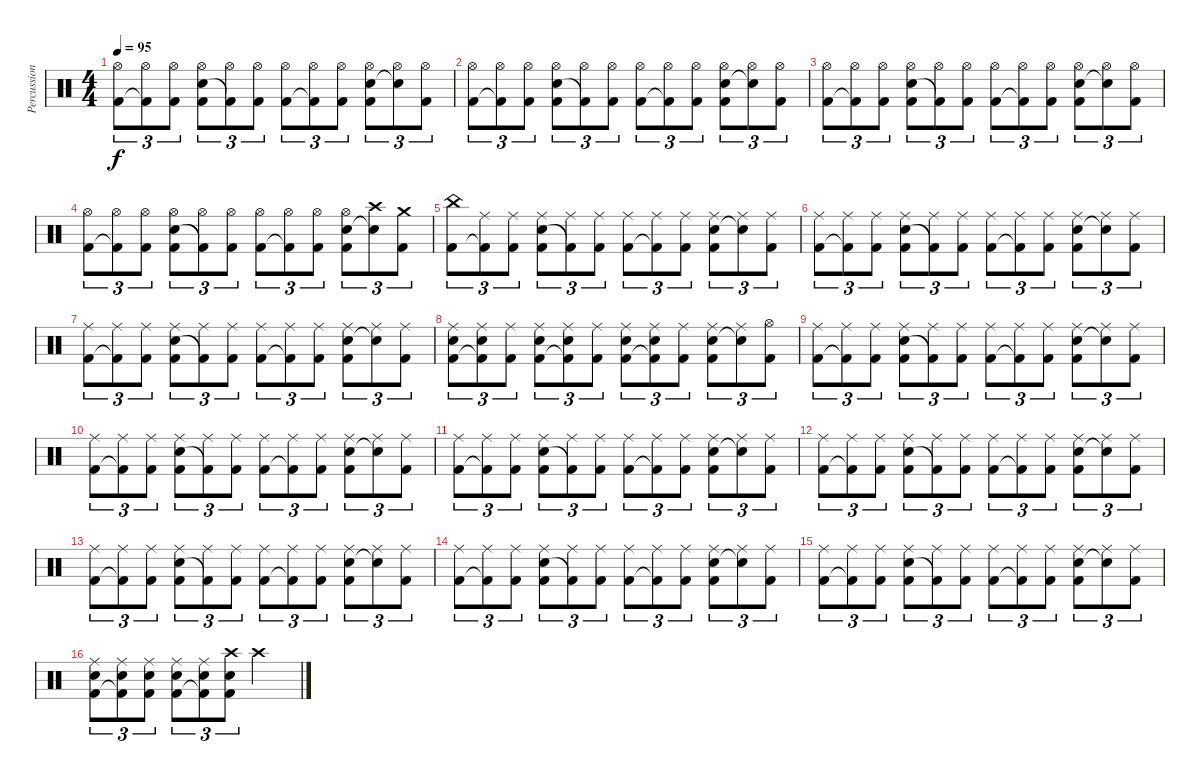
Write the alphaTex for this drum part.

\track ("Percussion" "Percussion") {instrument percussion}
\staff {score}
\articulation defaults
\ts (4 4)
\tempo 95
\clef neutral
\ks c
("Hi-Hat (open)" "Kick (hit) 2").8{tu (3 2) dy f} ("Hi-Hat (open)" "Kick (hit) 2"{t}).8{tu (3 2)} ("Hi-Hat (open)" "Kick (hit) 2").8{tu (3 2)} ("Hi-Hat (open)" "Snare (hit) 2" "Kick (hit) 2").8{tu (3 2)} ("Hi-Hat (open)" "Kick (hit) 2"{t}).8{tu (3 2)} ("Hi-Hat (open)" "Kick (hit) 2").8{tu (3 2)} ("Hi-Hat (open)" "Kick (hit) 2").8{tu (3 2)} ("Hi-Hat (open)" "Kick (hit) 2"{t}).8{tu (3 2)} ("Hi-Hat (open)" "Kick (hit) 2").8{tu (3 2)} ("Hi-Hat (open)" "Snare (hit) 2" "Kick (hit) 2").8{tu (3 2)} ("Hi-Hat (open)" "Snare (hit)"{t}).8{tu (3 2)} ("Hi-Hat (open)" "Kick (hit) 2").8{tu (3 2)} |
("Hi-Hat (open)" "Kick (hit) 2").8{tu (3 2)} ("Hi-Hat (open)" "Kick (hit) 2"{t}).8{tu (3 2)} ("Hi-Hat (open)" "Kick (hit) 2").8{tu (3 2)} ("Hi-Hat (open)" "Snare (hit) 2" "Kick (hit) 2").8{tu (3 2)} ("Hi-Hat (open)" "Kick (hit) 2"{t}).8{tu (3 2)} ("Hi-Hat (open)" "Kick (hit) 2").8{tu (3 2)} ("Hi-Hat (open)" "Kick (hit) 2").8{tu (3 2)} ("Hi-Hat (open)" "Kick (hit) 2"{t}).8{tu (3 2)} ("Hi-Hat (open)" "Kick (hit) 2").8{tu (3 2)} ("Hi-Hat (open)" "Snare (hit) 2" "Kick (hit) 2").8{tu (3 2)} ("Hi-Hat (open)" "Snare (hit)"{t}).8{tu (3 2)} ("Hi-Hat (open)" "Kick (hit) 2").8{tu (3 2)} |
("Hi-Hat (open)" "Kick (hit) 2").8{tu (3 2)} ("Hi-Hat (open)" "Kick (hit) 2"{t}).8{tu (3 2)} ("Hi-Hat (open)" "Kick (hit) 2").8{tu (3 2)} ("Hi-Hat (open)" "Snare (hit) 2" "Kick (hit) 2").8{tu (3 2)} ("Hi-Hat (open)" "Kick (hit) 2"{t}).8{tu (3 2)} ("Hi-Hat (open)" "Kick (hit) 2").8{tu (3 2)} ("Hi-Hat (open)" "Kick (hit) 2").8{tu (3 2)} ("Hi-Hat (open)" "Kick (hit) 2"{t}).8{tu (3 2)} ("Hi-Hat (open)" "Kick (hit) 2").8{tu (3 2)} ("Hi-Hat (open)" "Snare (hit) 2" "Kick (hit) 2").8{tu (3 2)} ("Hi-Hat (open)" "Snare (hit)"{t}).8{tu (3 2)} ("Hi-Hat (open)" "Kick (hit) 2").8{tu (3 2)} |
("Hi-Hat (open)" "Kick (hit) 2").8{tu (3 2)} ("Hi-Hat (open)" "Kick (hit) 2"{t}).8{tu (3 2)} ("Hi-Hat (open)" "Kick (hit) 2").8{tu (3 2)} ("Hi-Hat (open)" "Snare (hit) 2" "Kick (hit) 2").8{tu (3 2)} ("Hi-Hat (open)" "Kick (hit) 2"{t}).8{tu (3 2)} ("Hi-Hat (open)" "Kick (hit) 2").8{tu (3 2)} ("Hi-Hat (open)" "Kick (hit) 2").8{tu (3 2)} ("Hi-Hat (open)" "Kick (hit) 2"{t}).8{tu (3 2)} ("Hi-Hat (open)" "Kick (hit) 2").8{tu (3 2)} ("Hi-Hat (open)" "Snare (hit) 2" "Kick (hit) 2").8{tu (3 2)} ("Crash high (hit)" "Snare (hit)"{t}).8{tu (3 2)} ("Crash medium (hit)" "Kick (hit) 2").8{tu (3 2)} |
("China (hit)" "Kick (hit) 2").8{tu (3 2)} ("Ride (middle)" "Kick (hit) 2"{t}).8{tu (3 2)} ("Ride (middle)" "Kick (hit) 2").8{tu (3 2)} ("Ride (middle)" "Snare (hit) 2" "Kick (hit) 2").8{tu (3 2)} ("Ride (middle)" "Kick (hit) 2"{t}).8{tu (3 2)} ("Ride (middle)" "Kick (hit) 2").8{tu (3 2)} ("Ride (middle)" "Kick (hit) 2").8{tu (3 2)} ("Ride (middle)" "Kick (hit) 2"{t}).8{tu (3 2)} ("Ride (middle)" "Kick (hit) 2").8{tu (3 2)} ("Ride (middle)" "Snare (hit) 2" "Kick (hit) 2").8{tu (3 2)} ("Ride (middle)" "Snare (hit)"{t}).8{tu (3 2)} ("Ride (middle)" "Kick (hit) 2").8{tu (3 2)} |
("Ride (middle)" "Kick (hit) 2").8{tu (3 2)} ("Ride (middle)" "Kick (hit) 2"{t}).8{tu (3 2)} ("Ride (middle)" "Kick (hit) 2").8{tu (3 2)} ("Ride (middle)" "Snare (hit) 2" "Kick (hit) 2").8{tu (3 2)} ("Ride (middle)" "Kick (hit) 2"{t}).8{tu (3 2)} ("Ride (middle)" "Kick (hit) 2").8{tu (3 2)} ("Ride (middle)" "Kick (hit) 2").8{tu (3 2)} ("Ride (middle)" "Kick (hit) 2"{t}).8{tu (3 2)} ("Ride (middle)" "Kick (hit) 2").8{tu (3 2)} ("Ride (middle)" "Snare (hit) 2" "Kick (hit) 2").8{tu (3 2)} ("Ride (middle)" "Snare (hit)"{t}).8{tu (3 2)} ("Ride (middle)" "Kick (hit) 2").8{tu (3 2)} |
("Ride (middle)" "Kick (hit) 2").8{tu (3 2)} ("Ride (middle)" "Kick (hit) 2"{t}).8{tu (3 2)} ("Ride (middle)" "Kick (hit) 2").8{tu (3 2)} ("Ride (middle)" "Snare (hit) 2" "Kick (hit) 2").8{tu (3 2)} ("Ride (middle)" "Kick (hit) 2"{t}).8{tu (3 2)} ("Ride (middle)" "Kick (hit) 2").8{tu (3 2)} ("Ride (middle)" "Kick (hit) 2").8{tu (3 2)} ("Ride (middle)" "Kick (hit) 2"{t}).8{tu (3 2)} ("Ride (middle)" "Kick (hit) 2").8{tu (3 2)} ("Ride (middle)" "Snare (hit) 2" "Kick (hit) 2").8{tu (3 2)} ("Ride (middle)" "Snare (hit)"{t}).8{tu (3 2)} ("Ride (middle)" "Kick (hit) 2").8{tu (3 2)} |
("Ride (middle)" "Snare (hit) 2" "Kick (hit) 2").8{tu (3 2)} ("Ride (middle)" "Snare (hit) 2" "Kick (hit) 2"{t}).8{tu (3 2)} ("Ride (middle)" "Kick (hit) 2").8{tu (3 2)} ("Ride (middle)" "Snare (hit) 2" "Kick (hit) 2").8{tu (3 2)} ("Ride (middle)" "Snare (hit) 2" "Kick (hit) 2"{t}).8{tu (3 2)} ("Ride (middle)" "Kick (hit) 2").8{tu (3 2)} ("Ride (middle)" "Snare (hit) 2" "Kick (hit) 2").8{tu (3 2)} ("Ride (middle)" "Snare (hit) 2" "Kick (hit) 2"{t}).8{tu (3 2)} ("Ride (middle)" "Kick (hit) 2").8{tu (3 2)} ("Ride (middle)" "Snare (hit) 2" "Kick (hit) 2").8{tu (3 2)} ("Ride (middle)" "Snare (hit)"{t}).8{tu (3 2)} ("Hi-Hat (open)" "Kick (hit) 2").8{tu (3 2)} |
("Ride (middle)" "Kick (hit) 2").8{tu (3 2)} ("Ride (middle)" "Kick (hit) 2"{t}).8{tu (3 2)} ("Ride (middle)" "Kick (hit) 2").8{tu (3 2)} ("Ride (middle)" "Snare (hit) 2" "Kick (hit) 2").8{tu (3 2)} ("Ride (middle)" "Kick (hit) 2"{t}).8{tu (3 2)} ("Ride (middle)" "Kick (hit) 2").8{tu (3 2)} ("Ride (middle)" "Kick (hit) 2").8{tu (3 2)} ("Ride (middle)" "Kick (hit) 2"{t}).8{tu (3 2)} ("Ride (middle)" "Kick (hit) 2").8{tu (3 2)} ("Ride (middle)" "Snare (hit) 2" "Kick (hit) 2").8{tu (3 2)} ("Ride (middle)" "Snare (hit)"{t}).8{tu (3 2)} ("Ride (middle)" "Kick (hit) 2").8{tu (3 2)} |
("Ride (middle)" "Kick (hit) 2").8{tu (3 2)} ("Ride (middle)" "Kick (hit) 2"{t}).8{tu (3 2)} ("Ride (middle)" "Kick (hit) 2").8{tu (3 2)} ("Ride (middle)" "Snare (hit) 2" "Kick (hit) 2").8{tu (3 2)} ("Ride (middle)" "Kick (hit) 2"{t}).8{tu (3 2)} ("Ride (middle)" "Kick (hit) 2").8{tu (3 2)} ("Ride (middle)" "Kick (hit) 2").8{tu (3 2)} ("Ride (middle)" "Kick (hit) 2"{t}).8{tu (3 2)} ("Ride (middle)" "Kick (hit) 2").8{tu (3 2)} ("Ride (middle)" "Snare (hit) 2" "Kick (hit) 2").8{tu (3 2)} ("Ride (middle)" "Snare (hit)"{t}).8{tu (3 2)} ("Ride (middle)" "Kick (hit) 2").8{tu (3 2)} |
("Ride (middle)" "Kick (hit) 2").8{tu (3 2)} ("Ride (middle)" "Kick (hit) 2"{t}).8{tu (3 2)} ("Ride (middle)" "Kick (hit) 2").8{tu (3 2)} ("Ride (middle)" "Snare (hit) 2" "Kick (hit) 2").8{tu (3 2)} ("Ride (middle)" "Kick (hit) 2"{t}).8{tu (3 2)} ("Ride (middle)" "Kick (hit) 2").8{tu (3 2)} ("Ride (middle)" "Kick (hit) 2").8{tu (3 2)} ("Ride (middle)" "Kick (hit) 2"{t}).8{tu (3 2)} ("Ride (middle)" "Kick (hit) 2").8{tu (3 2)} ("Ride (middle)" "Snare (hit) 2" "Kick (hit) 2").8{tu (3 2)} ("Ride (middle)" "Snare (hit)"{t}).8{tu (3 2)} ("Ride (middle)" "Kick (hit) 2").8{tu (3 2)} |
("Ride (middle)" "Kick (hit) 2").8{tu (3 2)} ("Ride (middle)" "Kick (hit) 2"{t}).8{tu (3 2)} ("Ride (middle)" "Kick (hit) 2").8{tu (3 2)} ("Ride (middle)" "Snare (hit) 2" "Kick (hit) 2").8{tu (3 2)} ("Ride (middle)" "Kick (hit) 2"{t}).8{tu (3 2)} ("Ride (middle)" "Kick (hit) 2").8{tu (3 2)} ("Ride (middle)" "Kick (hit) 2").8{tu (3 2)} ("Ride (middle)" "Kick (hit) 2"{t}).8{tu (3 2)} ("Ride (middle)" "Kick (hit) 2").8{tu (3 2)} ("Ride (middle)" "Snare (hit) 2" "Kick (hit) 2").8{tu (3 2)} ("Ride (middle)" "Snare (hit)"{t}).8{tu (3 2)} ("Ride (middle)" "Kick (hit) 2").8{tu (3 2)} |
("Ride (middle)" "Kick (hit) 2").8{tu (3 2)} ("Ride (middle)" "Kick (hit) 2"{t}).8{tu (3 2)} ("Ride (middle)" "Kick (hit) 2").8{tu (3 2)} ("Ride (middle)" "Snare (hit) 2" "Kick (hit) 2").8{tu (3 2)} ("Ride (middle)" "Kick (hit) 2"{t}).8{tu (3 2)} ("Ride (middle)" "Kick (hit) 2").8{tu (3 2)} ("Ride (middle)" "Kick (hit) 2").8{tu (3 2)} ("Ride (middle)" "Kick (hit) 2"{t}).8{tu (3 2)} ("Ride (middle)" "Kick (hit) 2").8{tu (3 2)} ("Ride (middle)" "Snare (hit) 2" "Kick (hit) 2").8{tu (3 2)} ("Ride (middle)" "Snare (hit)"{t}).8{tu (3 2)} ("Ride (middle)" "Kick (hit) 2").8{tu (3 2)} |
("Ride (middle)" "Kick (hit) 2").8{tu (3 2)} ("Ride (middle)" "Kick (hit) 2"{t}).8{tu (3 2)} ("Ride (middle)" "Kick (hit) 2").8{tu (3 2)} ("Ride (middle)" "Snare (hit) 2" "Kick (hit) 2").8{tu (3 2)} ("Ride (middle)" "Kick (hit) 2"{t}).8{tu (3 2)} ("Ride (middle)" "Kick (hit) 2").8{tu (3 2)} ("Ride (middle)" "Kick (hit) 2").8{tu (3 2)} ("Ride (middle)" "Kick (hit) 2"{t}).8{tu (3 2)} ("Ride (middle)" "Kick (hit) 2").8{tu (3 2)} ("Ride (middle)" "Snare (hit) 2" "Kick (hit) 2").8{tu (3 2)} ("Ride (middle)" "Snare (hit)"{t}).8{tu (3 2)} ("Ride (middle)" "Kick (hit) 2").8{tu (3 2)} |
("Ride (middle)" "Kick (hit) 2").8{tu (3 2)} ("Ride (middle)" "Kick (hit) 2"{t}).8{tu (3 2)} ("Ride (middle)" "Kick (hit) 2").8{tu (3 2)} ("Ride (middle)" "Snare (hit) 2" "Kick (hit) 2").8{tu (3 2)} ("Ride (middle)" "Kick (hit) 2"{t}).8{tu (3 2)} ("Ride (middle)" "Kick (hit) 2").8{tu (3 2)} ("Ride (middle)" "Kick (hit) 2").8{tu (3 2)} ("Ride (middle)" "Kick (hit) 2"{t}).8{tu (3 2)} ("Ride (middle)" "Kick (hit) 2").8{tu (3 2)} ("Ride (middle)" "Snare (hit) 2" "Kick (hit) 2").8{tu (3 2)} ("Ride (middle)" "Snare (hit)"{t}).8{tu (3 2)} ("Ride (middle)" "Kick (hit) 2").8{tu (3 2)} |
("Ride (middle)" "Snare (hit) 2" "Kick (hit) 2").8{tu (3 2)} ("Ride (middle)" "Snare (hit) 2" "Kick (hit) 2"{t}).8{tu (3 2)} ("Ride (middle)" "Snare (hit) 2" "Kick (hit) 2").8{tu (3 2)} ("Ride (middle)" "Snare (hit) 2" "Kick (hit) 2").8{tu (3 2)} ("Ride (middle)" "Snare (hit) 2" "Kick (hit) 2"{t}).8{tu (3 2)} ("Crash high (hit)" "Snare (hit) 2" "Kick (hit) 2").8{tu (3 2)} "Crash high (hit)".2
